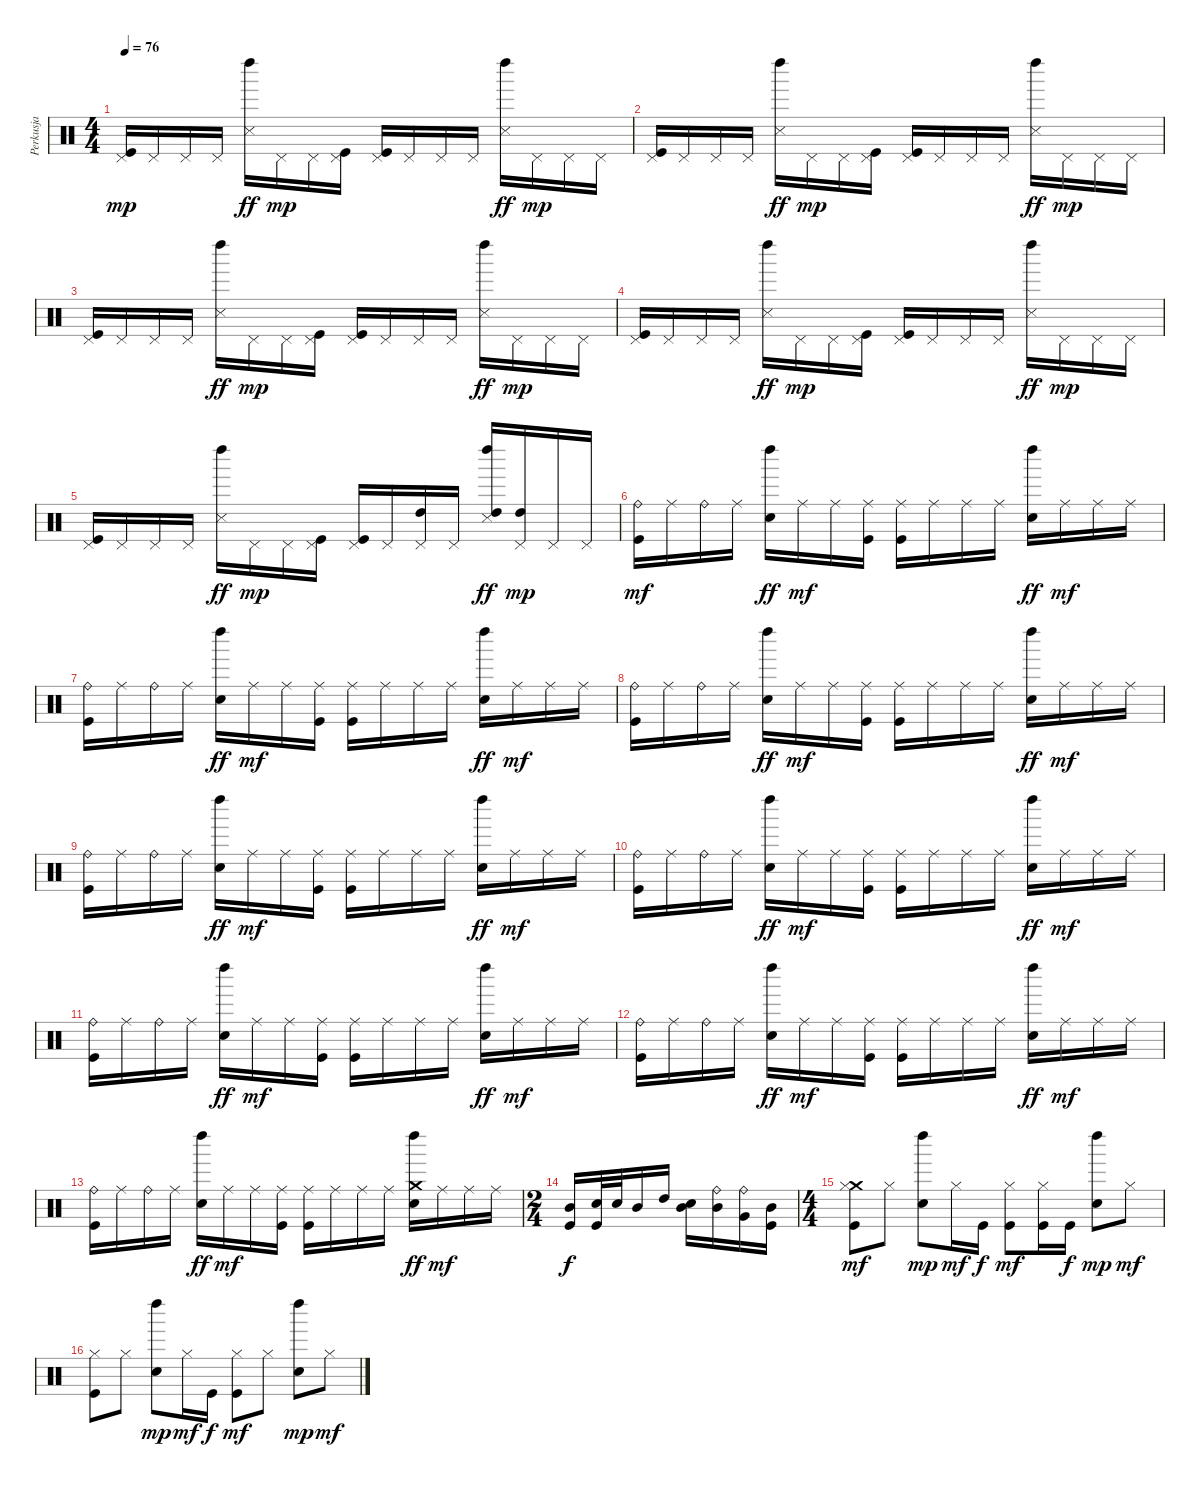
\track ("Perkusja" "Perkusja") {instrument percussion}
\staff {score}
\articulation defaults
\ts (4 4)
\tempo 76
\clef neutral
\ks c
("Kick (hit)" "Pedal Hi-Hat (hit)").16{dy mp} "Pedal Hi-Hat (hit)".16 "Pedal Hi-Hat (hit)".16 "Pedal Hi-Hat (hit)".16 ("Snare (side stick) 3" "Left Maraca (hit)").16{dy ff} "Pedal Hi-Hat (hit)".16{dy mp} "Pedal Hi-Hat (hit)".16 ("Kick (hit)" "Pedal Hi-Hat (hit)").16 ("Kick (hit)" "Pedal Hi-Hat (hit)").16 "Pedal Hi-Hat (hit)".16 "Pedal Hi-Hat (hit)".16 "Pedal Hi-Hat (hit)".16 ("Snare (side stick) 3" "Left Maraca (hit)").16{dy ff} "Pedal Hi-Hat (hit)".16{dy mp} "Pedal Hi-Hat (hit)".16 "Pedal Hi-Hat (hit)".16 |
("Kick (hit)" "Pedal Hi-Hat (hit)").16 "Pedal Hi-Hat (hit)".16 "Pedal Hi-Hat (hit)".16 "Pedal Hi-Hat (hit)".16 ("Snare (side stick) 3" "Left Maraca (hit)").16{dy ff} "Pedal Hi-Hat (hit)".16{dy mp} "Pedal Hi-Hat (hit)".16 ("Kick (hit)" "Pedal Hi-Hat (hit)").16 ("Kick (hit)" "Pedal Hi-Hat (hit)").16 "Pedal Hi-Hat (hit)".16 "Pedal Hi-Hat (hit)".16 "Pedal Hi-Hat (hit)".16 ("Snare (side stick) 3" "Left Maraca (hit)").16{dy ff} "Pedal Hi-Hat (hit)".16{dy mp} "Pedal Hi-Hat (hit)".16 "Pedal Hi-Hat (hit)".16 |
("Kick (hit)" "Pedal Hi-Hat (hit)").16 "Pedal Hi-Hat (hit)".16 "Pedal Hi-Hat (hit)".16 "Pedal Hi-Hat (hit)".16 ("Snare (side stick) 3" "Left Maraca (hit)").16{dy ff} "Pedal Hi-Hat (hit)".16{dy mp} "Pedal Hi-Hat (hit)".16 ("Kick (hit)" "Pedal Hi-Hat (hit)").16 ("Kick (hit)" "Pedal Hi-Hat (hit)").16 "Pedal Hi-Hat (hit)".16 "Pedal Hi-Hat (hit)".16 "Pedal Hi-Hat (hit)".16 ("Snare (side stick) 3" "Left Maraca (hit)").16{dy ff} "Pedal Hi-Hat (hit)".16{dy mp} "Pedal Hi-Hat (hit)".16 "Pedal Hi-Hat (hit)".16 |
("Kick (hit)" "Pedal Hi-Hat (hit)").16 "Pedal Hi-Hat (hit)".16 "Pedal Hi-Hat (hit)".16 "Pedal Hi-Hat (hit)".16 ("Snare (side stick) 3" "Left Maraca (hit)").16{dy ff} "Pedal Hi-Hat (hit)".16{dy mp} "Pedal Hi-Hat (hit)".16 ("Kick (hit)" "Pedal Hi-Hat (hit)").16 ("Kick (hit)" "Pedal Hi-Hat (hit)").16 "Pedal Hi-Hat (hit)".16 "Pedal Hi-Hat (hit)".16 "Pedal Hi-Hat (hit)".16 ("Snare (side stick) 3" "Left Maraca (hit)").16{dy ff} "Pedal Hi-Hat (hit)".16{dy mp} "Pedal Hi-Hat (hit)".16 "Pedal Hi-Hat (hit)".16 |
("Kick (hit)" "Pedal Hi-Hat (hit)").16 "Pedal Hi-Hat (hit)".16 "Pedal Hi-Hat (hit)".16 "Pedal Hi-Hat (hit)".16 ("Snare (side stick) 3" "Left Maraca (hit)").16{dy ff} "Pedal Hi-Hat (hit)".16{dy mp} "Pedal Hi-Hat (hit)".16 ("Kick (hit)" "Pedal Hi-Hat (hit)").16 ("Kick (hit)" "Pedal Hi-Hat (hit)").16 "Pedal Hi-Hat (hit)".16 ("High Tom (hit)" "Pedal Hi-Hat (hit)").16 "Pedal Hi-Hat (hit)".16 ("Snare (side stick) 3" "High Tom (hit)" "Left Maraca (hit)").16{dy ff} ("High Tom (hit)" "Pedal Hi-Hat (hit)").16{dy mp} "Pedal Hi-Hat (hit)".16 "Pedal Hi-Hat (hit)".16 |
("Kick (hit)" "Ride (bell)").16{dy mf} "Ride (middle)".16 "Ride (bell)".16 "Ride (middle)".16 ("Electric Snare (hit)" "Left Maraca (hit)").16{dy ff} "Ride (middle)".16{dy mf} "Ride (middle)".16 ("Kick (hit)" "Ride (middle)").16 ("Kick (hit)" "Ride (middle)").16 "Ride (middle)".16 "Ride (middle)".16 "Ride (middle)".16 ("Electric Snare (hit)" "Left Maraca (hit)").16{dy ff} "Ride (middle)".16{dy mf} "Ride (middle)".16 "Ride (middle)".16 |
("Kick (hit)" "Ride (bell)").16 "Ride (middle)".16 "Ride (bell)".16 "Ride (middle)".16 ("Electric Snare (hit)" "Left Maraca (hit)").16{dy ff} "Ride (middle)".16{dy mf} "Ride (middle)".16 ("Kick (hit)" "Ride (middle)").16 ("Kick (hit)" "Ride (middle)").16 "Ride (middle)".16 "Ride (middle)".16 "Ride (middle)".16 ("Electric Snare (hit)" "Left Maraca (hit)").16{dy ff} "Ride (middle)".16{dy mf} "Ride (middle)".16 "Ride (middle)".16 |
("Kick (hit)" "Ride (bell)").16 "Ride (middle)".16 "Ride (bell)".16 "Ride (middle)".16 ("Electric Snare (hit)" "Left Maraca (hit)").16{dy ff} "Ride (middle)".16{dy mf} "Ride (middle)".16 ("Kick (hit)" "Ride (middle)").16 ("Kick (hit)" "Ride (middle)").16 "Ride (middle)".16 "Ride (middle)".16 "Ride (middle)".16 ("Electric Snare (hit)" "Left Maraca (hit)").16{dy ff} "Ride (middle)".16{dy mf} "Ride (middle)".16 "Ride (middle)".16 |
("Kick (hit)" "Ride (bell)").16 "Ride (middle)".16 "Ride (bell)".16 "Ride (middle)".16 ("Electric Snare (hit)" "Left Maraca (hit)").16{dy ff} "Ride (middle)".16{dy mf} "Ride (middle)".16 ("Kick (hit)" "Ride (middle)").16 ("Kick (hit)" "Ride (middle)").16 "Ride (middle)".16 "Ride (middle)".16 "Ride (middle)".16 ("Electric Snare (hit)" "Left Maraca (hit)").16{dy ff} "Ride (middle)".16{dy mf} "Ride (middle)".16 "Ride (middle)".16 |
("Kick (hit)" "Ride (bell)").16 "Ride (middle)".16 "Ride (bell)".16 "Ride (middle)".16 ("Electric Snare (hit)" "Left Maraca (hit)").16{dy ff} "Ride (middle)".16{dy mf} "Ride (middle)".16 ("Kick (hit)" "Ride (middle)").16 ("Kick (hit)" "Ride (middle)").16 "Ride (middle)".16 "Ride (middle)".16 "Ride (middle)".16 ("Electric Snare (hit)" "Left Maraca (hit)").16{dy ff} "Ride (middle)".16{dy mf} "Ride (middle)".16 "Ride (middle)".16 |
("Kick (hit)" "Ride (bell)").16 "Ride (middle)".16 "Ride (bell)".16 "Ride (middle)".16 ("Electric Snare (hit)" "Left Maraca (hit)").16{dy ff} "Ride (middle)".16{dy mf} "Ride (middle)".16 ("Kick (hit)" "Ride (middle)").16 ("Kick (hit)" "Ride (middle)").16 "Ride (middle)".16 "Ride (middle)".16 "Ride (middle)".16 ("Electric Snare (hit)" "Left Maraca (hit)").16{dy ff} "Ride (middle)".16{dy mf} "Ride (middle)".16 "Ride (middle)".16 |
("Kick (hit)" "Ride (bell)").16 "Ride (middle)".16 "Ride (bell)".16 "Ride (middle)".16 ("Electric Snare (hit)" "Left Maraca (hit)").16{dy ff} "Ride (middle)".16{dy mf} "Ride (middle)".16 ("Kick (hit)" "Ride (middle)").16 ("Kick (hit)" "Ride (middle)").16 "Ride (middle)".16 "Ride (middle)".16 "Ride (middle)".16 ("Electric Snare (hit)" "Left Maraca (hit)").16{dy ff} "Ride (middle)".16{dy mf} "Ride (middle)".16 "Ride (middle)".16 |
("Kick (hit)" "Ride (bell)").16 "Ride (middle)".16 "Ride (bell)".16 "Ride (middle)".16 ("Electric Snare (hit)" "Left Maraca (hit)").16{dy ff} "Ride (middle)".16{dy mf} "Ride (middle)".16 ("Kick (hit)" "Ride (middle)").16 ("Kick (hit)" "Ride (middle)").16 "Ride (middle)".16 "Ride (middle)".16 "Ride (middle)".16 ("Electric Snare (hit)" "Crash medium (hit)" "Left Maraca (hit)").16{dy ff} "Ride (middle)".16{dy mf} "Ride (middle)".16 "Ride (middle)".16 |
\ts (2 4)
("Mid Tom (hit)" "Kick (hit)").16{dy f} ("Electric Snare (hit)" "Kick (hit)").32 "Electric Snare (hit)".32 "Mid Tom (hit)".16 "High Tom (hit)".16 ("Electric Snare (hit)" "Mid Tom (hit)").16 ("Mid Tom (hit)" "Ride (bell)").16 ("Very Low Tom (hit)" "Ride (bell)").16 ("Mid Tom (hit)" "Kick (hit)").16 |
\ts (4 4)
("Kick (hit)" "Crash medium (hit)" "Hi-Hat (closed)").8{dy mf} "Hi-Hat (closed)".8 ("Electric Snare (hit)" "Left Maraca (hit)").8{dy mp} "Hi-Hat (closed)".16{dy mf} "Kick (hit)".16{dy f} ("Kick (hit)" "Hi-Hat (closed)").8{dy mf} ("Kick (hit)" "Hi-Hat (closed)").16 "Kick (hit)".16{dy f} ("Electric Snare (hit)" "Left Maraca (hit)").8{dy mp} "Hi-Hat (closed)".8{dy mf} |
("Kick (hit)" "Hi-Hat (closed)").8 "Hi-Hat (closed)".8 ("Electric Snare (hit)" "Left Maraca (hit)").8{dy mp} "Hi-Hat (closed)".16{dy mf} "Kick (hit)".16{dy f} ("Kick (hit)" "Hi-Hat (closed)").8{dy mf} "Hi-Hat (closed)".8 ("Electric Snare (hit)" "Left Maraca (hit)").8{dy mp} "Hi-Hat (closed)".8{dy mf}
